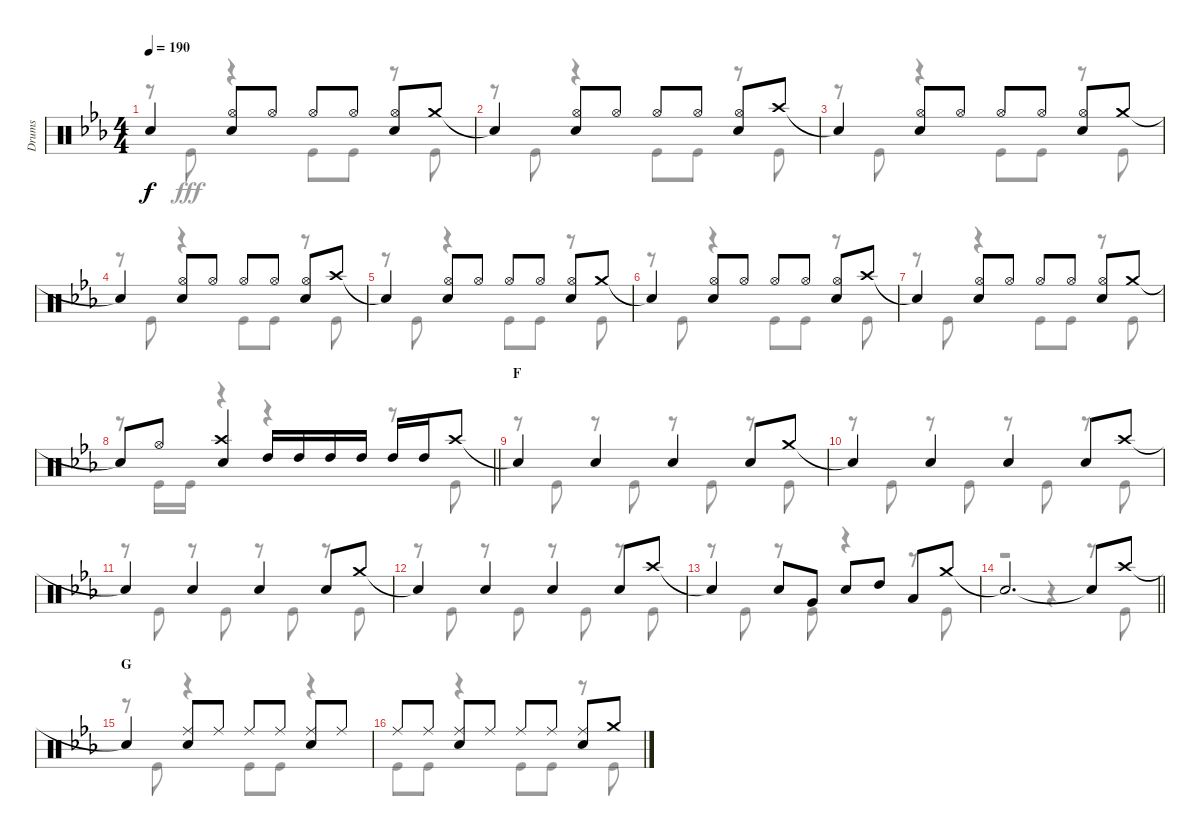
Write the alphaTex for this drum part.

\track ("Drums" "Drums") {instrument percussion}
\staff {score}
\articulation defaults
\voice
\ts (4 4)
\tempo 190
\clef neutral
\ks eb "Snare (hit)"{t}.4{dy f}
("Hi-Hat (open)" "Snare (hit) 2").8 "Hi-Hat (open)".8 "Hi-Hat (open)".8 "Hi-Hat (open)".8 ("Hi-Hat (open)" "Snare (hit) 2").8 "Crash medium (hit)".8 |
"Snare (hit)"{t}.4 ("Hi-Hat (open)" "Snare (hit) 2").8 "Hi-Hat (open)".8 "Hi-Hat (open)".8 "Hi-Hat (open)".8 ("Hi-Hat (open)" "Snare (hit) 2").8 "Crash high (hit)".8 |
"Snare (hit)"{t}.4 ("Hi-Hat (open)" "Snare (hit) 2").8 "Hi-Hat (open)".8 "Hi-Hat (open)".8 "Hi-Hat (open)".8 ("Hi-Hat (open)" "Snare (hit) 2").8 "Crash medium (hit)".8 |
"Snare (hit)"{t}.4 ("Hi-Hat (open)" "Snare (hit) 2").8 "Hi-Hat (open)".8 "Hi-Hat (open)".8 "Hi-Hat (open)".8 ("Hi-Hat (open)" "Snare (hit) 2").8 "Crash high (hit)".8 |
"Snare (hit)"{t}.4 ("Hi-Hat (open)" "Snare (hit) 2").8 "Hi-Hat (open)".8 "Hi-Hat (open)".8 "Hi-Hat (open)".8 ("Hi-Hat (open)" "Snare (hit) 2").8 "Crash medium (hit)".8 |
"Snare (hit)"{t}.4 ("Hi-Hat (open)" "Snare (hit) 2").8 "Hi-Hat (open)".8 "Hi-Hat (open)".8 "Hi-Hat (open)".8 ("Hi-Hat (open)" "Snare (hit) 2").8 "Crash high (hit)".8 |
"Snare (hit)"{t}.4 ("Hi-Hat (open)" "Snare (hit) 2").8 "Hi-Hat (open)".8 "Hi-Hat (open)".8 "Hi-Hat (open)".8 ("Hi-Hat (open)" "Snare (hit) 2").8 "Crash medium (hit)".8 |
\barLineRight lightlight "Snare (hit)"{t}.8 "Hi-Hat (open)".8
("Crash high (hit)" "Snare (hit) 2").4 "High Tom (hit)".16 "High Tom (hit)".16 "High Tom (hit)".16 "High Tom (hit)".16 "High Tom (hit)".16 "High Tom (hit)".16 "Crash high (hit)".8 |
\section ("" "F")
"Snare (hit)"{t}.4 "Snare (hit) 2".4 "Snare (hit) 2".4 "Snare (hit) 2".8 "Crash medium (hit)".8 |
"Snare (hit)"{t}.4 "Snare (hit) 2".4 "Snare (hit) 2".4 "Snare (hit) 2".8 "Crash high (hit)".8 |
"Snare (hit)"{t}.4 "Snare (hit) 2".4 "Snare (hit) 2".4 "Snare (hit) 2".8 "Crash medium (hit)".8 |
"Snare (hit)"{t}.4 "Snare (hit) 2".4 "Snare (hit) 2".4 "Snare (hit) 2".8 "Crash high (hit)".8 |
"Snare (hit)"{t}.4 "Snare (hit) 2".8 "Very Low Tom (hit)".8 "Snare (hit) 2".8 "High Tom (hit)".8 "Low Tom (hit)".8 "Crash medium (hit)".8 |
\barLineRight lightlight "Snare (hit)"{t}.2{d} "Snare (hit)"{t}.8 "Crash high (hit)".8
|
\section ("" "G")
"Snare (hit)"{t}.4 ("Ride (middle)" "Snare (hit) 2").8 "Ride (middle)".8 "Ride (middle)".8 "Ride (middle)".8 ("Ride (middle)" "Snare (hit) 2").8 "Ride (middle)".8 |
"Ride (middle)".8 "Ride (middle)".8 ("Ride (middle)" "Snare (hit) 2").8 "Ride (middle)".8 "Ride (middle)".8 "Ride (middle)".8 ("Ride (middle)" "Snare (hit) 2").8 "Crash medium (hit)".8
\voice
\clef neutral
\ottava regular
\simile none
\ks eb
r.8{dy fff} "Kick (hit)".8 r.4 "Kick (hit)".8 "Kick (hit)".8 r.8 "Kick (hit)".8 |
r.8 "Kick (hit)".8 r.4 "Kick (hit)".8 "Kick (hit)".8 r.8 "Kick (hit)".8 |
r.8 "Kick (hit)".8 r.4 "Kick (hit)".8 "Kick (hit)".8 r.8 "Kick (hit)".8 |
r.8 "Kick (hit)".8 r.4 "Kick (hit)".8 "Kick (hit)".8 r.8 "Kick (hit)".8 |
r.8 "Kick (hit)".8 r.4 "Kick (hit)".8 "Kick (hit)".8 r.8 "Kick (hit)".8 |
r.8 "Kick (hit)".8 r.4 "Kick (hit)".8 "Kick (hit)".8 r.8 "Kick (hit)".8 |
r.8 "Kick (hit)".8 r.4 "Kick (hit)".8 "Kick (hit)".8 r.8 "Kick (hit)".8 |
\barLineRight lightlight
r.8 "Kick (hit)".16 "Kick (hit)".16 r.4 r.4 r.8 "Kick (hit)".8 |
r.8 "Kick (hit)".8 r.8 "Kick (hit)".8 r.8 "Kick (hit)".8 r.8 "Kick (hit)".8 |
r.8 "Kick (hit)".8 r.8 "Kick (hit)".8 r.8 "Kick (hit)".8 r.8 "Kick (hit)".8 |
r.8 "Kick (hit)".8 r.8 "Kick (hit)".8 r.8 "Kick (hit)".8 r.8 "Kick (hit)".8 |
r.8 "Kick (hit)".8 r.8 "Kick (hit)".8 r.8 "Kick (hit)".8 r.8 "Kick (hit)".8 |
r.8 "Kick (hit)".8 r.8 "Kick (hit)".8 r.4 r.8 "Kick (hit)".8 |
\barLineRight lightlight
r.2 r.4 r.8 "Kick (hit)".8 |
r.8 "Kick (hit)".8 r.4 "Kick (hit)".8 "Kick (hit)".8 r.4 |
"Kick (hit)".8 "Kick (hit)".8 r.4 "Kick (hit)".8 "Kick (hit)".8 r.8 "Kick (hit)".8
